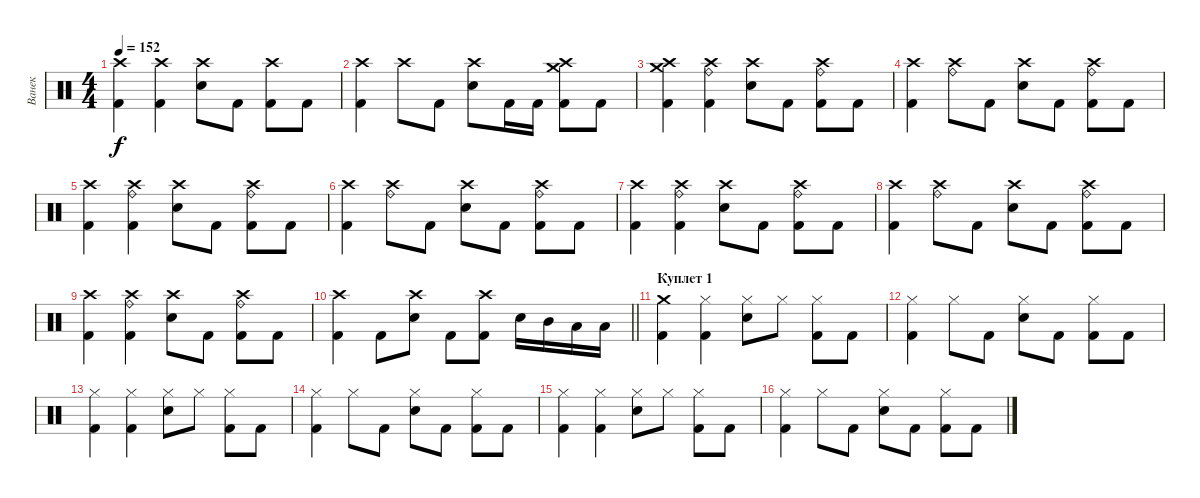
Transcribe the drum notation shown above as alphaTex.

\track ("Ванек" "Ванек") {instrument percussion}
\staff {score}
\articulation defaults
\ts (4 4)
\tempo 152
\clef neutral
\ks c
("Crash high (hit)" "Kick (hit) 2").4{dy f} ("Crash high (hit)" "Kick (hit) 2").4 ("Crash high (hit)" "Electric Snare (hit)").8 "Kick (hit) 2".8 ("Crash high (hit)" "Kick (hit) 2").8 "Kick (hit) 2".8 |
("Crash high (hit)" "Kick (hit) 2").4 "Crash high (hit)".8 "Kick (hit) 2".8 ("Crash high (hit)" "Electric Snare (hit)").8 "Kick (hit) 2".16 "Kick (hit) 2".16 ("Crash high (hit)" "Crash medium (hit)" "Kick (hit) 2").8 "Kick (hit) 2".8 |
("Crash high (hit)" "Crash medium (hit)" "Kick (hit) 2").4 ("Ride (bell)" "Crash high (hit)" "Kick (hit) 2").4 ("Crash high (hit)" "Electric Snare (hit)").8 "Kick (hit) 2".8 ("Ride (bell)" "Crash high (hit)" "Kick (hit) 2").8 "Kick (hit) 2".8 |
("Crash high (hit)" "Kick (hit) 2").4 ("Ride (bell)" "Crash high (hit)").8 "Kick (hit) 2".8 ("Crash high (hit)" "Electric Snare (hit)").8 "Kick (hit) 2".8 ("Ride (bell)" "Crash high (hit)" "Kick (hit) 2").8 "Kick (hit) 2".8 |
("Crash high (hit)" "Kick (hit) 2").4 ("Ride (bell)" "Crash high (hit)" "Kick (hit) 2").4 ("Crash high (hit)" "Electric Snare (hit)").8 "Kick (hit) 2".8 ("Ride (bell)" "Crash high (hit)" "Kick (hit) 2").8 "Kick (hit) 2".8 |
("Crash high (hit)" "Kick (hit) 2").4 ("Ride (bell)" "Crash high (hit)").8 "Kick (hit) 2".8 ("Crash high (hit)" "Electric Snare (hit)").8 "Kick (hit) 2".8 ("Ride (bell)" "Crash high (hit)" "Kick (hit) 2").8 "Kick (hit) 2".8 |
("Crash high (hit)" "Kick (hit) 2").4 ("Ride (bell)" "Crash high (hit)" "Kick (hit) 2").4 ("Crash high (hit)" "Electric Snare (hit)").8 "Kick (hit) 2".8 ("Ride (bell)" "Crash high (hit)" "Kick (hit) 2").8 "Kick (hit) 2".8 |
("Crash high (hit)" "Kick (hit) 2").4 ("Ride (bell)" "Crash high (hit)").8 "Kick (hit) 2".8 ("Crash high (hit)" "Electric Snare (hit)").8 "Kick (hit) 2".8 ("Ride (bell)" "Crash high (hit)" "Kick (hit) 2").8 "Kick (hit) 2".8 |
("Crash high (hit)" "Kick (hit) 2").4 ("Ride (bell)" "Crash high (hit)" "Kick (hit) 2").4 ("Crash high (hit)" "Electric Snare (hit)").8 "Kick (hit) 2".8 ("Ride (bell)" "Crash high (hit)" "Kick (hit) 2").8 "Kick (hit) 2".8 |
\barLineRight lightlight
("Crash high (hit)" "Kick (hit) 2").4 "Kick (hit) 2".8 ("Crash high (hit)" "Electric Snare (hit)").8 "Kick (hit) 2".8 ("Crash high (hit)" "Kick (hit) 2").8 "Electric Snare (hit)".16 "Mid Tom (hit)".16 "Low Tom (hit)".16 "Low Floor Tom (hit)".16 |
\section ("" "Куплет 1")
("Crash medium (hit)" "Kick (hit) 2").4 ("Hi-Hat (closed)" "Kick (hit) 2").4 ("Hi-Hat (closed)" "Electric Snare (hit)").8 "Hi-Hat (closed)".8 ("Hi-Hat (closed)" "Kick (hit) 2").8 "Kick (hit) 2".8 |
("Hi-Hat (closed)" "Kick (hit) 2").4 "Hi-Hat (closed)".8 "Kick (hit) 2".8 ("Hi-Hat (closed)" "Electric Snare (hit)").8 "Kick (hit) 2".8 ("Hi-Hat (closed)" "Kick (hit) 2").8 "Kick (hit) 2".8 |
("Hi-Hat (closed)" "Kick (hit) 2").4 ("Hi-Hat (closed)" "Kick (hit) 2").4 ("Hi-Hat (closed)" "Electric Snare (hit)").8 "Hi-Hat (closed)".8 ("Hi-Hat (closed)" "Kick (hit) 2").8 "Kick (hit) 2".8 |
("Hi-Hat (closed)" "Kick (hit) 2").4 "Hi-Hat (closed)".8 "Kick (hit) 2".8 ("Hi-Hat (closed)" "Electric Snare (hit)").8 "Kick (hit) 2".8 ("Hi-Hat (closed)" "Kick (hit) 2").8 "Kick (hit) 2".8 |
("Hi-Hat (closed)" "Kick (hit) 2").4 ("Hi-Hat (closed)" "Kick (hit) 2").4 ("Hi-Hat (closed)" "Electric Snare (hit)").8 "Hi-Hat (closed)".8 ("Hi-Hat (closed)" "Kick (hit) 2").8 "Kick (hit) 2".8 |
("Hi-Hat (closed)" "Kick (hit) 2").4 "Hi-Hat (closed)".8 "Kick (hit) 2".8 ("Hi-Hat (closed)" "Electric Snare (hit)").8 "Kick (hit) 2".8 ("Hi-Hat (closed)" "Kick (hit) 2").8 "Kick (hit) 2".8
